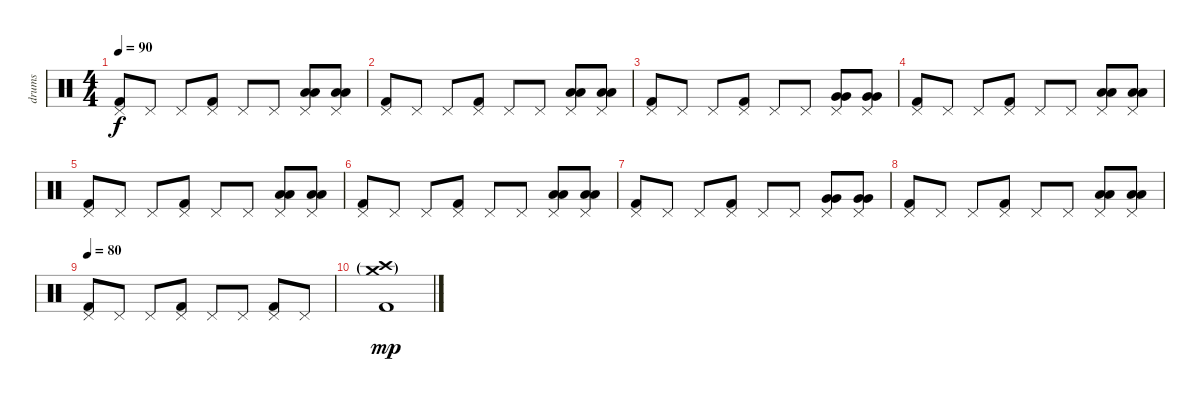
\track ("drums" "drums") {instrument percussion}
\staff {score}
\articulation defaults
\ts (4 4)
\tempo 90
\clef neutral
\ks c
("Kick (hit) 2" "Pedal Hi-Hat (hit)").8{dy f} "Pedal Hi-Hat (hit)".8 "Pedal Hi-Hat (hit)".8 ("Kick (hit) 2" "Pedal Hi-Hat (hit)").8 "Pedal Hi-Hat (hit)".8 "Pedal Hi-Hat (hit)".8 ("Low Floor Tom (hit)" "Low Floor Tom (hit)" "Pedal Hi-Hat (hit)").8 ("Low Floor Tom (hit)" "Low Floor Tom (hit)" "Pedal Hi-Hat (hit)").8 |
("Kick (hit) 2" "Pedal Hi-Hat (hit)").8 "Pedal Hi-Hat (hit)".8 "Pedal Hi-Hat (hit)".8 ("Kick (hit) 2" "Pedal Hi-Hat (hit)").8 "Pedal Hi-Hat (hit)".8 "Pedal Hi-Hat (hit)".8 ("Low Tom (hit)" "Low Tom (hit)" "Pedal Hi-Hat (hit)").8 ("Low Tom (hit)" "Low Tom (hit)" "Pedal Hi-Hat (hit)").8 |
("Kick (hit) 2" "Pedal Hi-Hat (hit)").8 "Pedal Hi-Hat (hit)".8 "Pedal Hi-Hat (hit)".8 ("Kick (hit) 2" "Pedal Hi-Hat (hit)").8 "Pedal Hi-Hat (hit)".8 "Pedal Hi-Hat (hit)".8 ("Very Low Tom (hit)" "Very Low Tom (hit)" "Pedal Hi-Hat (hit)").8 ("Very Low Tom (hit)" "Very Low Tom (hit)" "Pedal Hi-Hat (hit)").8 |
("Kick (hit) 2" "Pedal Hi-Hat (hit)").8 "Pedal Hi-Hat (hit)".8 "Pedal Hi-Hat (hit)".8 ("Kick (hit) 2" "Pedal Hi-Hat (hit)").8 "Pedal Hi-Hat (hit)".8 "Pedal Hi-Hat (hit)".8 ("Low Tom (hit)" "Low Tom (hit)" "Pedal Hi-Hat (hit)").8 ("Low Tom (hit)" "Low Tom (hit)" "Pedal Hi-Hat (hit)").8 |
("Kick (hit) 2" "Pedal Hi-Hat (hit)").8 "Pedal Hi-Hat (hit)".8 "Pedal Hi-Hat (hit)".8 ("Kick (hit) 2" "Pedal Hi-Hat (hit)").8 "Pedal Hi-Hat (hit)".8 "Pedal Hi-Hat (hit)".8 ("Low Floor Tom (hit)" "Low Floor Tom (hit)" "Pedal Hi-Hat (hit)").8 ("Low Floor Tom (hit)" "Low Floor Tom (hit)" "Pedal Hi-Hat (hit)").8 |
("Kick (hit) 2" "Pedal Hi-Hat (hit)").8 "Pedal Hi-Hat (hit)".8 "Pedal Hi-Hat (hit)".8 ("Kick (hit) 2" "Pedal Hi-Hat (hit)").8 "Pedal Hi-Hat (hit)".8 "Pedal Hi-Hat (hit)".8 ("Low Tom (hit)" "Low Tom (hit)" "Pedal Hi-Hat (hit)").8 ("Low Tom (hit)" "Low Tom (hit)" "Pedal Hi-Hat (hit)").8 |
("Kick (hit) 2" "Pedal Hi-Hat (hit)").8 "Pedal Hi-Hat (hit)".8 "Pedal Hi-Hat (hit)".8 ("Kick (hit) 2" "Pedal Hi-Hat (hit)").8 "Pedal Hi-Hat (hit)".8 "Pedal Hi-Hat (hit)".8 ("Very Low Tom (hit)" "Very Low Tom (hit)" "Pedal Hi-Hat (hit)").8 ("Very Low Tom (hit)" "Very Low Tom (hit)" "Pedal Hi-Hat (hit)").8 |
("Kick (hit) 2" "Pedal Hi-Hat (hit)").8 "Pedal Hi-Hat (hit)".8 "Pedal Hi-Hat (hit)".8 ("Kick (hit) 2" "Pedal Hi-Hat (hit)").8 "Pedal Hi-Hat (hit)".8 "Pedal Hi-Hat (hit)".8 ("Low Tom (hit)" "Low Tom (hit)" "Pedal Hi-Hat (hit)").8 ("Low Tom (hit)" "Low Tom (hit)" "Pedal Hi-Hat (hit)").8 |
\tempo 80
("Kick (hit) 2" "Pedal Hi-Hat (hit)").8 "Pedal Hi-Hat (hit)".8 "Pedal Hi-Hat (hit)".8 ("Kick (hit) 2" "Pedal Hi-Hat (hit)").8 "Pedal Hi-Hat (hit)".8 "Pedal Hi-Hat (hit)".8 ("Kick (hit) 2" "Pedal Hi-Hat (hit)").8 "Pedal Hi-Hat (hit)".8 |
("Kick (hit) 2" "Crash high (hit)"{g} "Crash medium (hit)"{g}).1{dy mp}
